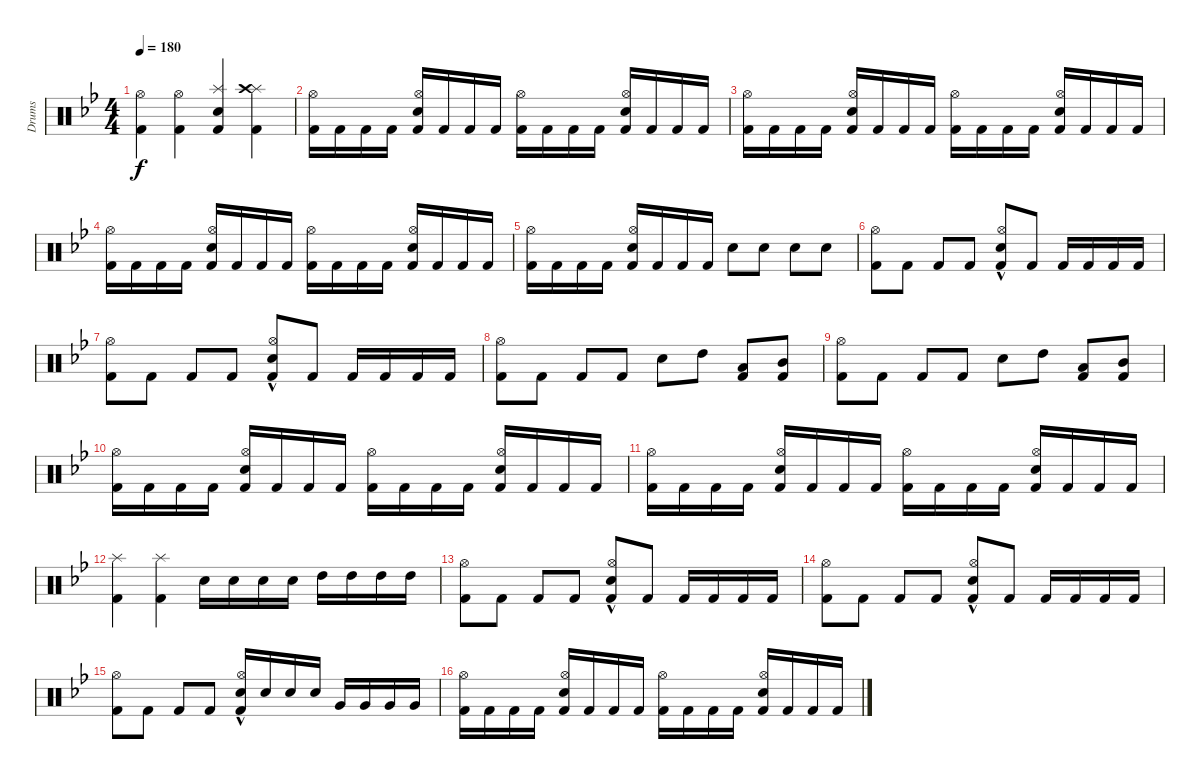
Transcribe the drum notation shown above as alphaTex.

\defaultSystemsLayout 4
\bracketExtendMode groupsimilarinstruments
\otherSystemsTrackNameOrientation horizontal
\track ("Drumkit" "Drums") {instrument percussion}
\staff {score}
\articulation defaults
\ts (4 4)
\tempo 180
\clef neutral
\scale
0.333333
\ks bb
("Kick (hit) 2"{acc forcenatural} "Hi-Hat (open)"{acc forcenatural}).4{dy f} ("Kick (hit) 2"{acc forcenatural} "Hi-Hat (open)"{acc forcenatural}).4 ("Kick (hit) 2"{acc forcenatural} "Splash (hit)"{acc forcenatural} "Snare (hit) 2"{acc forcenatural}).4 ("Splash (hit)"{acc forcenatural} "Crash high (hit)"{acc forcenatural} "Kick (hit) 2"{acc forcenatural}).4 |
\scale
0.333333 ("Kick (hit) 2"{acc forcenatural} "Hi-Hat (open)"{acc forcenatural}).16 "Kick (hit) 2"{acc forcenatural}.16 "Kick (hit) 2"{acc forcenatural}.16 "Kick (hit) 2"{acc forcenatural}.16 ("Kick (hit) 2"{acc forcenatural} "Hi-Hat (open)"{acc forcenatural} "Snare (hit) 2"{acc forcenatural}).16 "Kick (hit) 2"{acc forcenatural}.16 "Kick (hit) 2"{acc forcenatural}.16 "Kick (hit) 2"{acc forcenatural}.16 ("Kick (hit) 2"{acc forcenatural} "Hi-Hat (open)"{acc forcenatural}).16 "Kick (hit) 2"{acc forcenatural}.16 "Kick (hit) 2"{acc forcenatural}.16 "Kick (hit) 2"{acc forcenatural}.16 ("Kick (hit) 2"{acc forcenatural} "Hi-Hat (open)"{acc forcenatural} "Snare (hit) 2"{acc forcenatural}).16 "Kick (hit) 2"{acc forcenatural}.16 "Kick (hit) 2"{acc forcenatural}.16 "Kick (hit) 2"{acc forcenatural}.16 |
\scale
0.333333 ("Kick (hit) 2"{acc forcenatural} "Hi-Hat (open)"{acc forcenatural}).16 "Kick (hit) 2"{acc forcenatural}.16 "Kick (hit) 2"{acc forcenatural}.16 "Kick (hit) 2"{acc forcenatural}.16 ("Kick (hit) 2"{acc forcenatural} "Hi-Hat (open)"{acc forcenatural} "Snare (hit) 2"{acc forcenatural}).16 "Kick (hit) 2"{acc forcenatural}.16 "Kick (hit) 2"{acc forcenatural}.16 "Kick (hit) 2"{acc forcenatural}.16 ("Kick (hit) 2"{acc forcenatural} "Hi-Hat (open)"{acc forcenatural}).16 "Kick (hit) 2"{acc forcenatural}.16 "Kick (hit) 2"{acc forcenatural}.16 "Kick (hit) 2"{acc forcenatural}.16 ("Kick (hit) 2"{acc forcenatural} "Hi-Hat (open)"{acc forcenatural} "Snare (hit) 2"{acc forcenatural}).16 "Kick (hit) 2"{acc forcenatural}.16 "Kick (hit) 2"{acc forcenatural}.16 "Kick (hit) 2"{acc forcenatural}.16 |
\scale
0.333333 ("Kick (hit) 2"{acc forcenatural} "Hi-Hat (open)"{acc forcenatural}).16 "Kick (hit) 2"{acc forcenatural}.16 "Kick (hit) 2"{acc forcenatural}.16 "Kick (hit) 2"{acc forcenatural}.16 ("Kick (hit) 2"{acc forcenatural} "Hi-Hat (open)"{acc forcenatural} "Snare (hit) 2"{acc forcenatural}).16 "Kick (hit) 2"{acc forcenatural}.16 "Kick (hit) 2"{acc forcenatural}.16 "Kick (hit) 2"{acc forcenatural}.16 ("Kick (hit) 2"{acc forcenatural} "Hi-Hat (open)"{acc forcenatural}).16 "Kick (hit) 2"{acc forcenatural}.16 "Kick (hit) 2"{acc forcenatural}.16 "Kick (hit) 2"{acc forcenatural}.16 ("Kick (hit) 2"{acc forcenatural} "Hi-Hat (open)"{acc forcenatural} "Snare (hit) 2"{acc forcenatural}).16 "Kick (hit) 2"{acc forcenatural}.16 "Kick (hit) 2"{acc forcenatural}.16 "Kick (hit) 2"{acc forcenatural}.16 |
\scale
0.333333 ("Kick (hit) 2"{acc forcenatural} "Hi-Hat (open)"{acc forcenatural}).16 "Kick (hit) 2"{acc forcenatural}.16 "Kick (hit) 2"{acc forcenatural}.16 "Kick (hit) 2"{acc forcenatural}.16 ("Kick (hit) 2"{acc forcenatural} "Hi-Hat (open)"{acc forcenatural} "Snare (hit) 2"{acc forcenatural}).16 "Kick (hit) 2"{acc forcenatural}.16 "Kick (hit) 2"{acc forcenatural}.16 "Kick (hit) 2"{acc forcenatural}.16 "Snare (hit) 2"{acc forcenatural}.8 "Snare (hit) 2"{acc forcenatural}.8 "Snare (hit) 2"{acc forcenatural}.8 "Snare (hit) 2"{acc forcenatural}.8 |
\scale
0.333333 ("Kick (hit) 2"{acc forcenatural} "Hi-Hat (open)"{acc forcenatural}).8 "Kick (hit) 2"{acc forcenatural}.8 "Kick (hit) 2"{acc forcenatural}.8 "Kick (hit) 2"{acc forcenatural}.8 ("Kick (hit) 2"{acc forcenatural} "Hi-Hat (open)"{acc forcenatural} "Snare (hit) 2"{hac acc forcenatural}).8 "Kick (hit) 2"{acc forcenatural}.8 "Kick (hit) 2"{acc forcenatural}.16 "Kick (hit) 2"{acc forcenatural}.16 "Kick (hit) 2"{acc forcenatural}.16 "Kick (hit) 2"{acc forcenatural}.16 |
\scale
0.333333 ("Kick (hit) 2"{acc forcenatural} "Hi-Hat (open)"{acc forcenatural}).8 "Kick (hit) 2"{acc forcenatural}.8 "Kick (hit) 2"{acc forcenatural}.8 "Kick (hit) 2"{acc forcenatural}.8 ("Kick (hit) 2"{acc forcenatural} "Hi-Hat (open)"{acc forcenatural} "Snare (hit) 2"{hac acc forcenatural}).8 "Kick (hit) 2"{acc forcenatural}.8 "Kick (hit) 2"{acc forcenatural}.16 "Kick (hit) 2"{acc forcenatural}.16 "Kick (hit) 2"{acc forcenatural}.16 "Kick (hit) 2"{acc forcenatural}.16 |
\scale
0.333333 ("Kick (hit) 2"{acc forcenatural} "Hi-Hat (open)"{acc forcenatural}).8 "Kick (hit) 2"{acc forcenatural}.8 "Kick (hit) 2"{acc forcenatural}.8 "Kick (hit) 2"{acc forcenatural}.8 "Snare (hit) 2"{acc forcenatural}.8 "High Tom (hit)"{acc forcenatural}.8 ("Low Tom (hit)"{acc forcenatural} "Kick (hit) 2"{acc forcenatural}).8 ("Mid Tom (hit)"{acc forcenatural} "Kick (hit) 2"{acc forcenatural}).8 |
\scale
0.333333 ("Kick (hit) 2"{acc forcenatural} "Hi-Hat (open)"{acc forcenatural}).8 "Kick (hit) 2"{acc forcenatural}.8 "Kick (hit) 2"{acc forcenatural}.8 "Kick (hit) 2"{acc forcenatural}.8 "Snare (hit) 2"{acc forcenatural}.8 "High Tom (hit)"{acc forcenatural}.8 ("Low Tom (hit)"{acc forcenatural} "Kick (hit) 2"{acc forcenatural}).8 ("Mid Tom (hit)"{acc forcenatural} "Kick (hit) 2"{acc forcenatural}).8 |
\scale
0.333333 ("Kick (hit) 2"{acc forcenatural} "Hi-Hat (open)"{acc forcenatural}).16 "Kick (hit) 2"{acc forcenatural}.16 "Kick (hit) 2"{acc forcenatural}.16 "Kick (hit) 2"{acc forcenatural}.16 ("Kick (hit) 2"{acc forcenatural} "Hi-Hat (open)"{acc forcenatural} "Snare (hit) 2"{acc forcenatural}).16 "Kick (hit) 2"{acc forcenatural}.16 "Kick (hit) 2"{acc forcenatural}.16 "Kick (hit) 2"{acc forcenatural}.16 ("Kick (hit) 2"{acc forcenatural} "Hi-Hat (open)"{acc forcenatural}).16 "Kick (hit) 2"{acc forcenatural}.16 "Kick (hit) 2"{acc forcenatural}.16 "Kick (hit) 2"{acc forcenatural}.16 ("Kick (hit) 2"{acc forcenatural} "Hi-Hat (open)"{acc forcenatural} "Snare (hit) 2"{acc forcenatural}).16 "Kick (hit) 2"{acc forcenatural}.16 "Kick (hit) 2"{acc forcenatural}.16 "Kick (hit) 2"{acc forcenatural}.16 |
\scale
0.333333 ("Kick (hit) 2"{acc forcenatural} "Hi-Hat (open)"{acc forcenatural}).16 "Kick (hit) 2"{acc forcenatural}.16 "Kick (hit) 2"{acc forcenatural}.16 "Kick (hit) 2"{acc forcenatural}.16 ("Kick (hit) 2"{acc forcenatural} "Hi-Hat (open)"{acc forcenatural} "Snare (hit) 2"{acc forcenatural}).16 "Kick (hit) 2"{acc forcenatural}.16 "Kick (hit) 2"{acc forcenatural}.16 "Kick (hit) 2"{acc forcenatural}.16 ("Kick (hit) 2"{acc forcenatural} "Hi-Hat (open)"{acc forcenatural}).16 "Kick (hit) 2"{acc forcenatural}.16 "Kick (hit) 2"{acc forcenatural}.16 "Kick (hit) 2"{acc forcenatural}.16 ("Kick (hit) 2"{acc forcenatural} "Hi-Hat (open)"{acc forcenatural} "Snare (hit) 2"{acc forcenatural}).16 "Kick (hit) 2"{acc forcenatural}.16 "Kick (hit) 2"{acc forcenatural}.16 "Kick (hit) 2"{acc forcenatural}.16 |
\scale
0.333333 ("Kick (hit) 2"{acc forcenatural} "Splash (hit)"{acc forcenatural}).4 ("Splash (hit)"{acc forcenatural} "Kick (hit) 2"{acc forcenatural}).4 "Snare (hit) 2"{acc forcenatural}.16 "Snare (hit) 2"{acc forcenatural}.16 "Snare (hit) 2"{acc forcenatural}.16 "Snare (hit) 2"{acc forcenatural}.16 "High Tom (hit)"{acc forcenatural}.16 "High Tom (hit)"{acc forcenatural}.16 "High Tom (hit)"{acc forcenatural}.16 "High Tom (hit)"{acc forcenatural}.16 |
\scale
0.333333 ("Kick (hit) 2"{acc forcenatural} "Hi-Hat (open)"{acc forcenatural}).8 "Kick (hit) 2"{acc forcenatural}.8 "Kick (hit) 2"{acc forcenatural}.8 "Kick (hit) 2"{acc forcenatural}.8 ("Kick (hit) 2"{acc forcenatural} "Hi-Hat (open)"{acc forcenatural} "Snare (hit) 2"{hac acc forcenatural}).8 "Kick (hit) 2"{acc forcenatural}.8 "Kick (hit) 2"{acc forcenatural}.16 "Kick (hit) 2"{acc forcenatural}.16 "Kick (hit) 2"{acc forcenatural}.16 "Kick (hit) 2"{acc forcenatural}.16 |
\scale
0.333333 ("Kick (hit) 2"{acc forcenatural} "Hi-Hat (open)"{acc forcenatural}).8 "Kick (hit) 2"{acc forcenatural}.8 "Kick (hit) 2"{acc forcenatural}.8 "Kick (hit) 2"{acc forcenatural}.8 ("Kick (hit) 2"{acc forcenatural} "Hi-Hat (open)"{acc forcenatural} "Snare (hit) 2"{hac acc forcenatural}).8 "Kick (hit) 2"{acc forcenatural}.8 "Kick (hit) 2"{acc forcenatural}.16 "Kick (hit) 2"{acc forcenatural}.16 "Kick (hit) 2"{acc forcenatural}.16 "Kick (hit) 2"{acc forcenatural}.16 |
\scale
0.333333 ("Kick (hit) 2"{acc forcenatural} "Hi-Hat (open)"{acc forcenatural}).8 "Kick (hit) 2"{acc forcenatural}.8 "Kick (hit) 2"{acc forcenatural}.8 "Kick (hit) 2"{acc forcenatural}.8 ("Kick (hit) 2"{acc forcenatural} "Hi-Hat (open)"{acc forcenatural} "Snare (hit) 2"{hac acc forcenatural}).16 "Snare (hit) 2"{acc forcenatural}.16 "Snare (hit) 2"{acc forcenatural}.16 "Snare (hit) 2"{acc forcenatural}.16 "Very Low Tom (hit)"{acc forcenatural}.16 "Very Low Tom (hit)"{acc forcenatural}.16 "Very Low Tom (hit)"{acc forcenatural}.16 "Very Low Tom (hit)"{acc forcenatural}.16 |
\scale
0.333333 ("Kick (hit) 2"{acc forcenatural} "Hi-Hat (open)"{acc forcenatural}).16 "Kick (hit) 2"{acc forcenatural}.16 "Kick (hit) 2"{acc forcenatural}.16 "Kick (hit) 2"{acc forcenatural}.16 ("Kick (hit) 2"{acc forcenatural} "Hi-Hat (open)"{acc forcenatural} "Snare (hit) 2"{acc forcenatural}).16 "Kick (hit) 2"{acc forcenatural}.16 "Kick (hit) 2"{acc forcenatural}.16 "Kick (hit) 2"{acc forcenatural}.16 ("Kick (hit) 2"{acc forcenatural} "Hi-Hat (open)"{acc forcenatural}).16 "Kick (hit) 2"{acc forcenatural}.16 "Kick (hit) 2"{acc forcenatural}.16 "Kick (hit) 2"{acc forcenatural}.16 ("Kick (hit) 2"{acc forcenatural} "Hi-Hat (open)"{acc forcenatural} "Snare (hit) 2"{acc forcenatural}).16 "Kick (hit) 2"{acc forcenatural}.16 "Kick (hit) 2"{acc forcenatural}.16 "Kick (hit) 2"{acc forcenatural}.16
